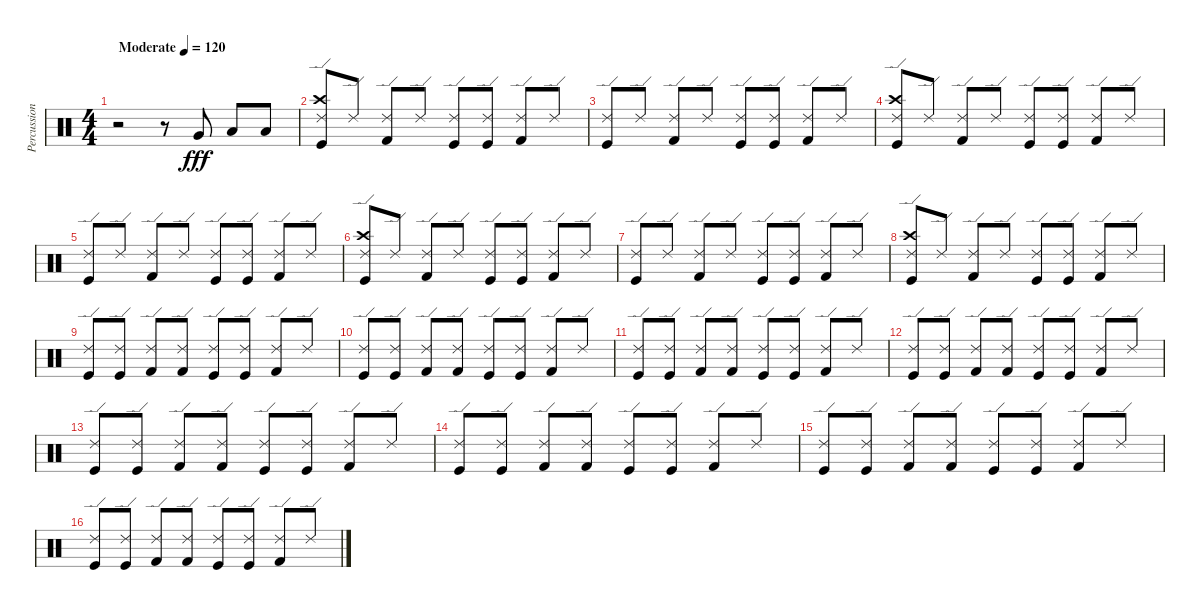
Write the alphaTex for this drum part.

\track ("Percussion" "Percussion") {instrument percussion}
\staff {score}
\articulation defaults
\ts (4 4)
\tempo (120 "Moderate")
\clef neutral
\ks c
r.2{dy fff} r.8 "Very Low Tom (hit)".8 "Low Floor Tom (hit)".8 "Low Floor Tom (hit)".8 |
("Kick (hit)" "Crash high (hit)" "Ride (edge) 2").8 "Ride (edge) 2".8 ("Kick (hit) 2" "Ride (edge) 2").8 "Ride (edge) 2".8 ("Kick (hit)" "Ride (edge) 2").8 ("Kick (hit)" "Ride (edge) 2").8 ("Kick (hit) 2" "Ride (edge) 2").8 "Ride (edge) 2".8 |
("Kick (hit)" "Ride (edge) 2").8 "Ride (edge) 2".8 ("Kick (hit) 2" "Ride (edge) 2").8 "Ride (edge) 2".8 ("Kick (hit)" "Ride (edge) 2").8 ("Kick (hit)" "Ride (edge) 2").8 ("Kick (hit) 2" "Ride (edge) 2").8 "Ride (edge) 2".8 |
("Kick (hit)" "Crash high (hit)" "Ride (edge) 2").8 "Ride (edge) 2".8 ("Kick (hit) 2" "Ride (edge) 2").8 "Ride (edge) 2".8 ("Kick (hit)" "Ride (edge) 2").8 ("Kick (hit)" "Ride (edge) 2").8 ("Kick (hit) 2" "Ride (edge) 2").8 "Ride (edge) 2".8 |
("Kick (hit)" "Ride (edge) 2").8 "Ride (edge) 2".8 ("Kick (hit) 2" "Ride (edge) 2").8 "Ride (edge) 2".8 ("Kick (hit)" "Ride (edge) 2").8 ("Kick (hit)" "Ride (edge) 2").8 ("Kick (hit) 2" "Ride (edge) 2").8 "Ride (edge) 2".8 |
("Kick (hit)" "Crash high (hit)" "Ride (edge) 2").8 "Ride (edge) 2".8 ("Kick (hit) 2" "Ride (edge) 2").8 "Ride (edge) 2".8 ("Kick (hit)" "Ride (edge) 2").8 ("Kick (hit)" "Ride (edge) 2").8 ("Kick (hit) 2" "Ride (edge) 2").8 "Ride (edge) 2".8 |
("Kick (hit)" "Ride (edge) 2").8 "Ride (edge) 2".8 ("Kick (hit) 2" "Ride (edge) 2").8 "Ride (edge) 2".8 ("Kick (hit)" "Ride (edge) 2").8 ("Kick (hit)" "Ride (edge) 2").8 ("Kick (hit) 2" "Ride (edge) 2").8 "Ride (edge) 2".8 |
("Kick (hit)" "Crash high (hit)" "Ride (edge) 2").8 "Ride (edge) 2".8 ("Kick (hit) 2" "Ride (edge) 2").8 "Ride (edge) 2".8 ("Kick (hit)" "Ride (edge) 2").8 ("Kick (hit)" "Ride (edge) 2").8 ("Kick (hit) 2" "Ride (edge) 2").8 "Ride (edge) 2".8 |
("Kick (hit)" "Ride (edge) 2").8 ("Kick (hit)" "Ride (edge) 2").8 ("Kick (hit) 2" "Ride (edge) 2").8 ("Kick (hit) 2" "Ride (edge) 2").8 ("Kick (hit)" "Ride (edge) 2").8 ("Kick (hit)" "Ride (edge) 2").8 ("Kick (hit) 2" "Ride (edge) 2").8 "Ride (edge) 2".8 |
("Kick (hit)" "Ride (edge) 2").8 ("Kick (hit)" "Ride (edge) 2").8 ("Kick (hit) 2" "Ride (edge) 2").8 ("Kick (hit) 2" "Ride (edge) 2").8 ("Kick (hit)" "Ride (edge) 2").8 ("Kick (hit)" "Ride (edge) 2").8 ("Kick (hit) 2" "Ride (edge) 2").8 "Ride (edge) 2".8 |
("Kick (hit)" "Ride (edge) 2").8 ("Kick (hit)" "Ride (edge) 2").8 ("Kick (hit) 2" "Ride (edge) 2").8 ("Kick (hit) 2" "Ride (edge) 2").8 ("Kick (hit)" "Ride (edge) 2").8 ("Kick (hit)" "Ride (edge) 2").8 ("Kick (hit) 2" "Ride (edge) 2").8 "Ride (edge) 2".8 |
("Kick (hit)" "Ride (edge) 2").8 ("Kick (hit)" "Ride (edge) 2").8 ("Kick (hit) 2" "Ride (edge) 2").8 ("Kick (hit) 2" "Ride (edge) 2").8 ("Kick (hit)" "Ride (edge) 2").8 ("Kick (hit)" "Ride (edge) 2").8 ("Kick (hit) 2" "Ride (edge) 2").8 "Ride (edge) 2".8 |
("Kick (hit)" "Ride (edge) 2").8 ("Kick (hit)" "Ride (edge) 2").8 ("Kick (hit) 2" "Ride (edge) 2").8 ("Kick (hit) 2" "Ride (edge) 2").8 ("Kick (hit)" "Ride (edge) 2").8 ("Kick (hit)" "Ride (edge) 2").8 ("Kick (hit) 2" "Ride (edge) 2").8 "Ride (edge) 2".8 |
("Kick (hit)" "Ride (edge) 2").8 ("Kick (hit)" "Ride (edge) 2").8 ("Kick (hit) 2" "Ride (edge) 2").8 ("Kick (hit) 2" "Ride (edge) 2").8 ("Kick (hit)" "Ride (edge) 2").8 ("Kick (hit)" "Ride (edge) 2").8 ("Kick (hit) 2" "Ride (edge) 2").8 "Ride (edge) 2".8 |
("Kick (hit)" "Ride (edge) 2").8 ("Kick (hit)" "Ride (edge) 2").8 ("Kick (hit) 2" "Ride (edge) 2").8 ("Kick (hit) 2" "Ride (edge) 2").8 ("Kick (hit)" "Ride (edge) 2").8 ("Kick (hit)" "Ride (edge) 2").8 ("Kick (hit) 2" "Ride (edge) 2").8 "Ride (edge) 2".8 |
("Kick (hit)" "Ride (edge) 2").8 ("Kick (hit)" "Ride (edge) 2").8 ("Kick (hit) 2" "Ride (edge) 2").8 ("Kick (hit) 2" "Ride (edge) 2").8 ("Kick (hit)" "Ride (edge) 2").8 ("Kick (hit)" "Ride (edge) 2").8 ("Kick (hit) 2" "Ride (edge) 2").8 "Ride (edge) 2".8
